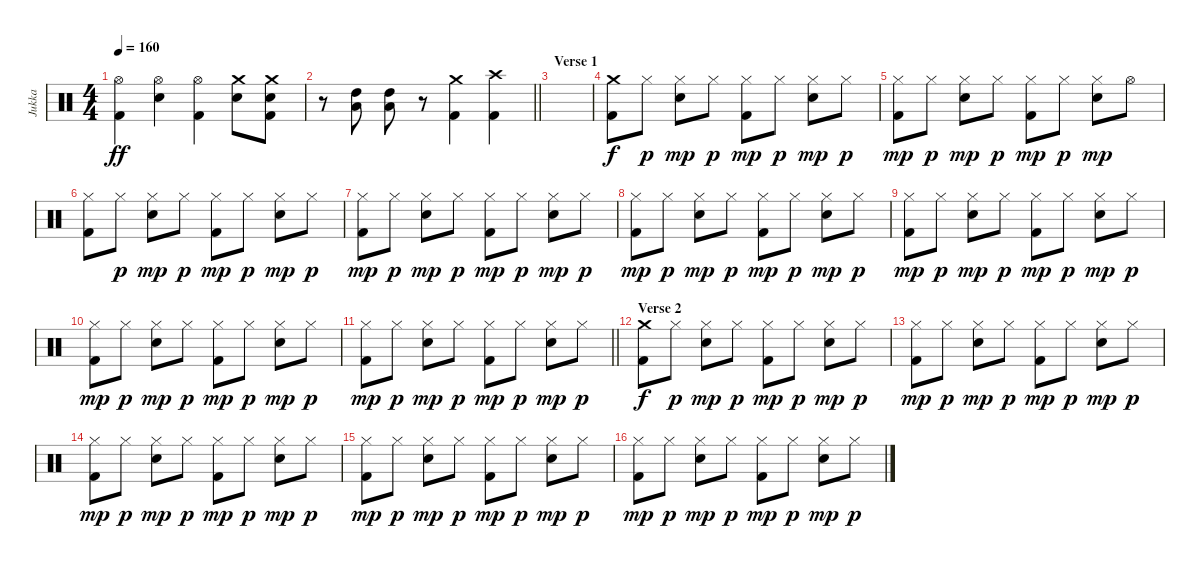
\track ("Jukka" "Jukka") {instrument percussion}
\staff {score}
\articulation defaults
\ts (4 4)
\tempo 160
\clef neutral
\ks c
("Hi-Hat (open)" "Kick (hit) 2").4{dy ff} ("Hi-Hat (open)" "Snare (hit) 2").4 ("Hi-Hat (open)" "Kick (hit) 2").4 ("Crash medium (hit)" "Snare (hit) 2").8 ("Crash medium (hit)" "Snare (hit) 2" "Kick (hit) 2").8 |
\barLineRight lightlight
r.8 ("High Tom (hit)" "Low Tom (hit)").8 ("High Tom (hit)" "Low Tom (hit)").8 r.8 ("Crash medium (hit)" "Kick (hit) 2").4 ("Crash high (hit)" "Kick (hit) 2").4 |
\section ("" "Verse 1")
|
("Crash medium (hit)" "Kick (hit) 2").8{dy f} "Hi-Hat (closed)".8{dy p} ("Hi-Hat (closed)" "Snare (hit) 2").8{dy mp} "Hi-Hat (closed)".8{dy p} ("Hi-Hat (closed)" "Kick (hit) 2").8{dy mp} "Hi-Hat (closed)".8{dy p} ("Hi-Hat (closed)" "Snare (hit) 2").8{dy mp} "Hi-Hat (closed)".8{dy p} |
("Hi-Hat (closed)" "Kick (hit) 2").8{dy mp} "Hi-Hat (closed)".8{dy p} ("Hi-Hat (closed)" "Snare (hit) 2").8{dy mp} "Hi-Hat (closed)".8{dy p} ("Hi-Hat (closed)" "Kick (hit) 2").8{dy mp} "Hi-Hat (closed)".8{dy p} ("Hi-Hat (closed)" "Snare (hit) 2").8{dy mp} "Hi-Hat (open)".8 |
("Hi-Hat (closed)" "Kick (hit) 2").8 "Hi-Hat (closed)".8{dy p} ("Hi-Hat (closed)" "Snare (hit) 2").8{dy mp} "Hi-Hat (closed)".8{dy p} ("Hi-Hat (closed)" "Kick (hit) 2").8{dy mp} "Hi-Hat (closed)".8{dy p} ("Hi-Hat (closed)" "Snare (hit) 2").8{dy mp} "Hi-Hat (closed)".8{dy p} |
("Hi-Hat (closed)" "Kick (hit) 2").8{dy mp} "Hi-Hat (closed)".8{dy p} ("Hi-Hat (closed)" "Snare (hit) 2").8{dy mp} "Hi-Hat (closed)".8{dy p} ("Hi-Hat (closed)" "Kick (hit) 2").8{dy mp} "Hi-Hat (closed)".8{dy p} ("Hi-Hat (closed)" "Snare (hit) 2").8{dy mp} "Hi-Hat (closed)".8{dy p} |
("Hi-Hat (closed)" "Kick (hit) 2").8{dy mp} "Hi-Hat (closed)".8{dy p} ("Hi-Hat (closed)" "Snare (hit) 2").8{dy mp} "Hi-Hat (closed)".8{dy p} ("Hi-Hat (closed)" "Kick (hit) 2").8{dy mp} "Hi-Hat (closed)".8{dy p} ("Hi-Hat (closed)" "Snare (hit) 2").8{dy mp} "Hi-Hat (closed)".8{dy p} |
("Hi-Hat (closed)" "Kick (hit) 2").8{dy mp} "Hi-Hat (closed)".8{dy p} ("Hi-Hat (closed)" "Snare (hit) 2").8{dy mp} "Hi-Hat (closed)".8{dy p} ("Hi-Hat (closed)" "Kick (hit) 2").8{dy mp} "Hi-Hat (closed)".8{dy p} ("Hi-Hat (closed)" "Snare (hit) 2").8{dy mp} "Hi-Hat (closed)".8{dy p} |
("Hi-Hat (closed)" "Kick (hit) 2").8{dy mp} "Hi-Hat (closed)".8{dy p} ("Hi-Hat (closed)" "Snare (hit) 2").8{dy mp} "Hi-Hat (closed)".8{dy p} ("Hi-Hat (closed)" "Kick (hit) 2").8{dy mp} "Hi-Hat (closed)".8{dy p} ("Hi-Hat (closed)" "Snare (hit) 2").8{dy mp} "Hi-Hat (closed)".8{dy p} |
\barLineRight lightlight
("Hi-Hat (closed)" "Kick (hit) 2").8{dy mp} "Hi-Hat (closed)".8{dy p} ("Hi-Hat (closed)" "Snare (hit) 2").8{dy mp} "Hi-Hat (closed)".8{dy p} ("Hi-Hat (closed)" "Kick (hit) 2").8{dy mp} "Hi-Hat (closed)".8{dy p} ("Hi-Hat (closed)" "Snare (hit) 2").8{dy mp} "Hi-Hat (closed)".8{dy p} |
\section ("" "Verse 2")
("Crash medium (hit)" "Kick (hit) 2").8{dy f} "Hi-Hat (closed)".8{dy p} ("Hi-Hat (closed)" "Snare (hit) 2").8{dy mp} "Hi-Hat (closed)".8{dy p} ("Hi-Hat (closed)" "Kick (hit) 2").8{dy mp} "Hi-Hat (closed)".8{dy p} ("Hi-Hat (closed)" "Snare (hit) 2").8{dy mp} "Hi-Hat (closed)".8{dy p} |
("Hi-Hat (closed)" "Kick (hit) 2").8{dy mp} "Hi-Hat (closed)".8{dy p} ("Hi-Hat (closed)" "Snare (hit) 2").8{dy mp} "Hi-Hat (closed)".8{dy p} ("Hi-Hat (closed)" "Kick (hit) 2").8{dy mp} "Hi-Hat (closed)".8{dy p} ("Hi-Hat (closed)" "Snare (hit) 2").8{dy mp} "Hi-Hat (closed)".8{dy p} |
("Hi-Hat (closed)" "Kick (hit) 2").8{dy mp} "Hi-Hat (closed)".8{dy p} ("Hi-Hat (closed)" "Snare (hit) 2").8{dy mp} "Hi-Hat (closed)".8{dy p} ("Hi-Hat (closed)" "Kick (hit) 2").8{dy mp} "Hi-Hat (closed)".8{dy p} ("Hi-Hat (closed)" "Snare (hit) 2").8{dy mp} "Hi-Hat (closed)".8{dy p} |
("Hi-Hat (closed)" "Kick (hit) 2").8{dy mp} "Hi-Hat (closed)".8{dy p} ("Hi-Hat (closed)" "Snare (hit) 2").8{dy mp} "Hi-Hat (closed)".8{dy p} ("Hi-Hat (closed)" "Kick (hit) 2").8{dy mp} "Hi-Hat (closed)".8{dy p} ("Hi-Hat (closed)" "Snare (hit) 2").8{dy mp} "Hi-Hat (closed)".8{dy p} |
("Hi-Hat (closed)" "Kick (hit) 2").8{dy mp} "Hi-Hat (closed)".8{dy p} ("Hi-Hat (closed)" "Snare (hit) 2").8{dy mp} "Hi-Hat (closed)".8{dy p} ("Hi-Hat (closed)" "Kick (hit) 2").8{dy mp} "Hi-Hat (closed)".8{dy p} ("Hi-Hat (closed)" "Snare (hit) 2").8{dy mp} "Hi-Hat (closed)".8{dy p}
